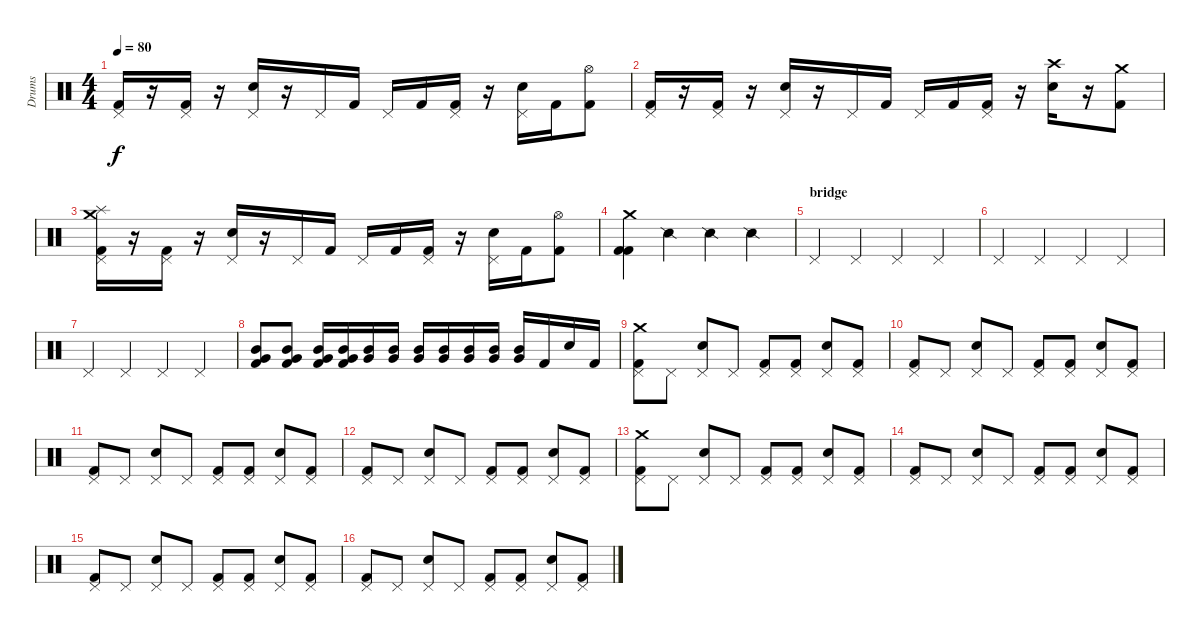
\track ("Drums" "Drums") {instrument percussion}
\staff {score}
\articulation defaults
\ts (4 4)
\tempo 80
\clef neutral
\ks c
("Pedal Hi-Hat (hit)" "Kick (hit) 2").16{dy f} r.16 ("Pedal Hi-Hat (hit)" "Kick (hit) 2").16 r.16 ("Pedal Hi-Hat (hit)" "Snare (hit) 2").16 r.16 "Pedal Hi-Hat (hit)".16 "Kick (hit) 2".16 "Pedal Hi-Hat (hit)".16 "Kick (hit) 2".16 ("Pedal Hi-Hat (hit)" "Kick (hit) 2").16 r.16 ("Pedal Hi-Hat (hit)" "Snare (hit) 2").16 "Kick (hit) 2".16 ("Hi-Hat (open)" "Kick (hit) 2").8 |
("Pedal Hi-Hat (hit)" "Kick (hit) 2").16 r.16 ("Pedal Hi-Hat (hit)" "Kick (hit) 2").16 r.16 ("Pedal Hi-Hat (hit)" "Snare (hit) 2").16 r.16 "Pedal Hi-Hat (hit)".16 "Kick (hit) 2".16 "Pedal Hi-Hat (hit)".16 "Kick (hit) 2".16 ("Pedal Hi-Hat (hit)" "Kick (hit) 2").16 r.16 ("Crash high (hit)" "Snare (hit) 2").16 r.16 ("Crash medium (hit)" "Kick (hit) 2").8 |
("Pedal Hi-Hat (hit)" "Splash (hit)" "Crash medium (hit)" "Kick (hit) 2").16 r.16 ("Pedal Hi-Hat (hit)" "Kick (hit) 2").16 r.16 ("Pedal Hi-Hat (hit)" "Snare (hit) 2").16 r.16 "Pedal Hi-Hat (hit)".16 "Kick (hit) 2".16 "Pedal Hi-Hat (hit)".16 "Kick (hit) 2".16 ("Pedal Hi-Hat (hit)" "Kick (hit) 2").16 r.16 ("Pedal Hi-Hat (hit)" "Snare (hit) 2").16 "Kick (hit) 2".16 ("Hi-Hat (open)" "Kick (hit) 2").8 |
("Crash medium (hit)" "Kick (hit) 2" "Kick (hit) 2").4 "Snare (side stick) 2".4 "Snare (side stick) 2".4 "Snare (side stick) 2".4 |
\section ("" "bridge")
"Pedal Hi-Hat (hit)".4 "Pedal Hi-Hat (hit)".4 "Pedal Hi-Hat (hit)".4 "Pedal Hi-Hat (hit)".4 |
"Pedal Hi-Hat (hit)".4 "Pedal Hi-Hat (hit)".4 "Pedal Hi-Hat (hit)".4 "Pedal Hi-Hat (hit)".4 |
"Pedal Hi-Hat (hit)".4 "Pedal Hi-Hat (hit)".4 "Pedal Hi-Hat (hit)".4 "Pedal Hi-Hat (hit)".4 |
("Very Low Tom (hit)" "Mid Tom (hit)" "Kick (hit) 2").8 ("Very Low Tom (hit)" "Mid Tom (hit)" "Kick (hit) 2").8 ("Very Low Tom (hit)" "Mid Tom (hit)" "Kick (hit) 2").16 ("Very Low Tom (hit)" "Mid Tom (hit)" "Kick (hit) 2").16 ("Very Low Tom (hit)" "Mid Tom (hit)").16 ("Very Low Tom (hit)" "Mid Tom (hit)").16 ("Very Low Tom (hit)" "Mid Tom (hit)").16 ("Very Low Tom (hit)" "Mid Tom (hit)").16 ("Very Low Tom (hit)" "Mid Tom (hit)").16 ("Very Low Tom (hit)" "Mid Tom (hit)").16 ("Very Low Tom (hit)" "Mid Tom (hit)").16 "Kick (hit) 2".16 "Electric Snare (hit)".16 "Kick (hit) 2".16 |
("Pedal Hi-Hat (hit)" "Crash medium (hit)" "Kick (hit) 2").8 "Pedal Hi-Hat (hit)".8 ("Pedal Hi-Hat (hit)" "Electric Snare (hit)").8 "Pedal Hi-Hat (hit)".8 ("Pedal Hi-Hat (hit)" "Kick (hit) 2").8 ("Pedal Hi-Hat (hit)" "Kick (hit) 2").8 ("Pedal Hi-Hat (hit)" "Electric Snare (hit)").8 ("Pedal Hi-Hat (hit)" "Kick (hit) 2").8 |
("Pedal Hi-Hat (hit)" "Kick (hit) 2").8 "Pedal Hi-Hat (hit)".8 ("Pedal Hi-Hat (hit)" "Electric Snare (hit)").8 "Pedal Hi-Hat (hit)".8 ("Pedal Hi-Hat (hit)" "Kick (hit) 2").8 ("Pedal Hi-Hat (hit)" "Kick (hit) 2").8 ("Pedal Hi-Hat (hit)" "Electric Snare (hit)").8 ("Pedal Hi-Hat (hit)" "Kick (hit) 2").8 |
("Pedal Hi-Hat (hit)" "Kick (hit) 2").8 "Pedal Hi-Hat (hit)".8 ("Pedal Hi-Hat (hit)" "Electric Snare (hit)").8 "Pedal Hi-Hat (hit)".8 ("Pedal Hi-Hat (hit)" "Kick (hit) 2").8 ("Pedal Hi-Hat (hit)" "Kick (hit) 2").8 ("Pedal Hi-Hat (hit)" "Electric Snare (hit)").8 ("Pedal Hi-Hat (hit)" "Kick (hit) 2").8 |
("Pedal Hi-Hat (hit)" "Kick (hit) 2").8 "Pedal Hi-Hat (hit)".8 ("Pedal Hi-Hat (hit)" "Electric Snare (hit)").8 "Pedal Hi-Hat (hit)".8 ("Pedal Hi-Hat (hit)" "Kick (hit) 2").8 ("Pedal Hi-Hat (hit)" "Kick (hit) 2").8 ("Pedal Hi-Hat (hit)" "Electric Snare (hit)").8 ("Pedal Hi-Hat (hit)" "Kick (hit) 2").8 |
("Pedal Hi-Hat (hit)" "Crash medium (hit)" "Kick (hit) 2").8 "Pedal Hi-Hat (hit)".8 ("Pedal Hi-Hat (hit)" "Electric Snare (hit)").8 "Pedal Hi-Hat (hit)".8 ("Pedal Hi-Hat (hit)" "Kick (hit) 2").8 ("Pedal Hi-Hat (hit)" "Kick (hit) 2").8 ("Pedal Hi-Hat (hit)" "Electric Snare (hit)").8 ("Pedal Hi-Hat (hit)" "Kick (hit) 2").8 |
("Pedal Hi-Hat (hit)" "Kick (hit) 2").8 "Pedal Hi-Hat (hit)".8 ("Pedal Hi-Hat (hit)" "Electric Snare (hit)").8 "Pedal Hi-Hat (hit)".8 ("Pedal Hi-Hat (hit)" "Kick (hit) 2").8 ("Pedal Hi-Hat (hit)" "Kick (hit) 2").8 ("Pedal Hi-Hat (hit)" "Electric Snare (hit)").8 ("Pedal Hi-Hat (hit)" "Kick (hit) 2").8 |
("Pedal Hi-Hat (hit)" "Kick (hit) 2").8 "Pedal Hi-Hat (hit)".8 ("Pedal Hi-Hat (hit)" "Electric Snare (hit)").8 "Pedal Hi-Hat (hit)".8 ("Pedal Hi-Hat (hit)" "Kick (hit) 2").8 ("Pedal Hi-Hat (hit)" "Kick (hit) 2").8 ("Pedal Hi-Hat (hit)" "Electric Snare (hit)").8 ("Pedal Hi-Hat (hit)" "Kick (hit) 2").8 |
("Pedal Hi-Hat (hit)" "Kick (hit) 2").8 "Pedal Hi-Hat (hit)".8 ("Pedal Hi-Hat (hit)" "Electric Snare (hit)").8 "Pedal Hi-Hat (hit)".8 ("Pedal Hi-Hat (hit)" "Kick (hit) 2").8 ("Pedal Hi-Hat (hit)" "Kick (hit) 2").8 ("Pedal Hi-Hat (hit)" "Electric Snare (hit)").8 ("Pedal Hi-Hat (hit)" "Kick (hit) 2").8
